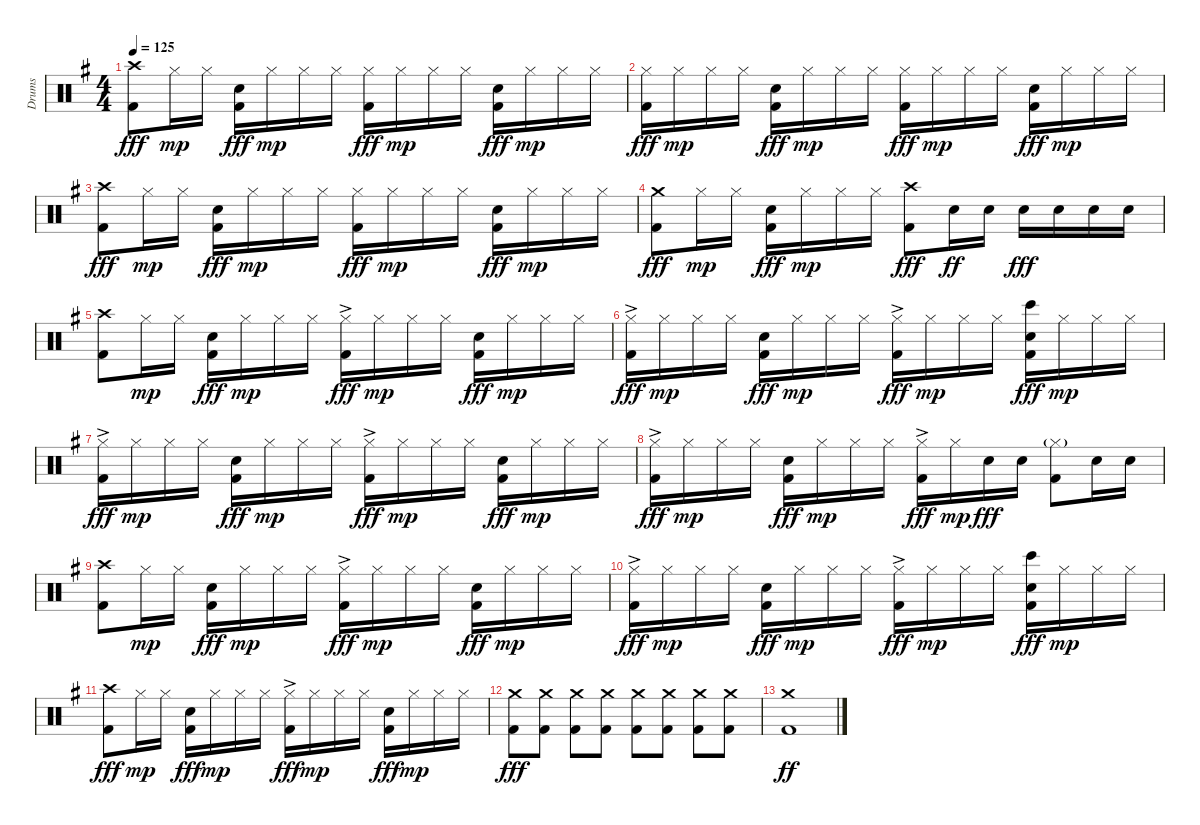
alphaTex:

\track ("Drums" "Drums") {instrument percussion}
\staff {score}
\articulation defaults
\ts (4 4)
\tempo 125
\clef neutral
\ks eminor
("Crash high (hit)" "Kick (hit) 2").8{dy fff} "Hi-Hat (closed)".16{dy mp} "Hi-Hat (closed)".16 ("Electric Snare (hit)" "Kick (hit) 2").16{dy fff} "Hi-Hat (closed)".16{dy mp} "Hi-Hat (closed)".16 "Hi-Hat (closed)".16 ("Hi-Hat (closed)" "Kick (hit) 2").16{dy fff} "Hi-Hat (closed)".16{dy mp} "Hi-Hat (closed)".16 "Hi-Hat (closed)".16 ("Electric Snare (hit)" "Kick (hit) 2").16{dy fff} "Hi-Hat (closed)".16{dy mp} "Hi-Hat (closed)".16 "Hi-Hat (closed)".16 |
("Hi-Hat (closed)" "Kick (hit) 2").16{dy fff} "Hi-Hat (closed)".16{dy mp} "Hi-Hat (closed)".16 "Hi-Hat (closed)".16 ("Electric Snare (hit)" "Kick (hit) 2").16{dy fff} "Hi-Hat (closed)".16{dy mp} "Hi-Hat (closed)".16 "Hi-Hat (closed)".16 ("Hi-Hat (closed)" "Kick (hit) 2").16{dy fff} "Hi-Hat (closed)".16{dy mp} "Hi-Hat (closed)".16 "Hi-Hat (closed)".16 ("Electric Snare (hit)" "Kick (hit) 2").16{dy fff} "Hi-Hat (closed)".16{dy mp} "Hi-Hat (closed)".16 "Hi-Hat (closed)".16 |
("Crash high (hit)" "Kick (hit) 2").8{dy fff} "Hi-Hat (closed)".16{dy mp} "Hi-Hat (closed)".16 ("Electric Snare (hit)" "Kick (hit) 2").16{dy fff} "Hi-Hat (closed)".16{dy mp} "Hi-Hat (closed)".16 "Hi-Hat (closed)".16 ("Hi-Hat (closed)" "Kick (hit) 2").16{dy fff} "Hi-Hat (closed)".16{dy mp} "Hi-Hat (closed)".16 "Hi-Hat (closed)".16 ("Electric Snare (hit)" "Kick (hit) 2").16{dy fff} "Hi-Hat (closed)".16{dy mp} "Hi-Hat (closed)".16 "Hi-Hat (closed)".16 |
("Crash medium (hit)" "Kick (hit) 2").8{dy fff} "Hi-Hat (closed)".16{dy mp} "Hi-Hat (closed)".16 ("Electric Snare (hit)" "Kick (hit) 2").16{dy fff} "Hi-Hat (closed)".16{dy mp} "Hi-Hat (closed)".16 "Hi-Hat (closed)".16 ("Crash high (hit)" "Kick (hit) 2").8{dy fff} "Electric Snare (hit)".16{dy ff} "Electric Snare (hit)".16 "Electric Snare (hit)".16{dy fff} "Electric Snare (hit)".16 "Electric Snare (hit)".16 "Electric Snare (hit)".16 |
("Crash high (hit)" "Kick (hit) 2").8 "Hi-Hat (closed)".16{dy mp} "Hi-Hat (closed)".16 ("Electric Snare (hit)" "Kick (hit) 2").16{dy fff} "Hi-Hat (closed)".16{dy mp} "Hi-Hat (closed)".16 "Hi-Hat (closed)".16 ("Hi-Hat (closed)"{ac} "Kick (hit) 2").16{dy fff} "Hi-Hat (closed)".16{dy mp} "Hi-Hat (closed)".16 "Hi-Hat (closed)".16 ("Electric Snare (hit)" "Kick (hit) 2").16{dy fff} "Hi-Hat (closed)".16{dy mp} "Hi-Hat (closed)".16 "Hi-Hat (closed)".16 |
("Hi-Hat (closed)"{ac} "Kick (hit) 2").16{dy fff} "Hi-Hat (closed)".16{dy mp} "Hi-Hat (closed)".16 "Hi-Hat (closed)".16 ("Electric Snare (hit)" "Kick (hit) 2").16{dy fff} "Hi-Hat (closed)".16{dy mp} "Hi-Hat (closed)".16 "Hi-Hat (closed)".16 ("Hi-Hat (closed)"{ac} "Kick (hit) 2").16{dy fff} "Hi-Hat (closed)".16{dy mp} "Hi-Hat (closed)".16 "Hi-Hat (closed)".16 ("Bongo High (hit)" "Electric Snare (hit)" "Kick (hit) 2").16{dy fff} "Hi-Hat (closed)".16{dy mp} "Hi-Hat (closed)".16 "Hi-Hat (closed)".16 |
("Hi-Hat (closed)"{ac} "Kick (hit) 2").16{dy fff} "Hi-Hat (closed)".16{dy mp} "Hi-Hat (closed)".16 "Hi-Hat (closed)".16 ("Electric Snare (hit)" "Kick (hit) 2").16{dy fff} "Hi-Hat (closed)".16{dy mp} "Hi-Hat (closed)".16 "Hi-Hat (closed)".16 ("Hi-Hat (closed)"{ac} "Kick (hit) 2").16{dy fff} "Hi-Hat (closed)".16{dy mp} "Hi-Hat (closed)".16 "Hi-Hat (closed)".16 ("Electric Snare (hit)" "Kick (hit) 2").16{dy fff} "Hi-Hat (closed)".16{dy mp} "Hi-Hat (closed)".16 "Hi-Hat (closed)".16 |
("Hi-Hat (closed)"{ac} "Kick (hit) 2").16{dy fff} "Hi-Hat (closed)".16{dy mp} "Hi-Hat (closed)".16 "Hi-Hat (closed)".16 ("Electric Snare (hit)" "Kick (hit) 2").16{dy fff} "Hi-Hat (closed)".16{dy mp} "Hi-Hat (closed)".16 "Hi-Hat (closed)".16 ("Hi-Hat (closed)"{ac} "Kick (hit) 2").16{dy fff} "Hi-Hat (closed)".16{dy mp} "Electric Snare (hit)".16{dy fff} "Electric Snare (hit)".16 ("Hi-Hat (closed)"{g} "Kick (hit) 2").8 "Electric Snare (hit)".16 "Electric Snare (hit)".16 |
("Crash high (hit)" "Kick (hit) 2").8 "Hi-Hat (closed)".16{dy mp} "Hi-Hat (closed)".16 ("Electric Snare (hit)" "Kick (hit) 2").16{dy fff} "Hi-Hat (closed)".16{dy mp} "Hi-Hat (closed)".16 "Hi-Hat (closed)".16 ("Hi-Hat (closed)"{ac} "Kick (hit) 2").16{dy fff} "Hi-Hat (closed)".16{dy mp} "Hi-Hat (closed)".16 "Hi-Hat (closed)".16 ("Electric Snare (hit)" "Kick (hit) 2").16{dy fff} "Hi-Hat (closed)".16{dy mp} "Hi-Hat (closed)".16 "Hi-Hat (closed)".16 |
("Hi-Hat (closed)"{ac} "Kick (hit) 2").16{dy fff} "Hi-Hat (closed)".16{dy mp} "Hi-Hat (closed)".16 "Hi-Hat (closed)".16 ("Electric Snare (hit)" "Kick (hit) 2").16{dy fff} "Hi-Hat (closed)".16{dy mp} "Hi-Hat (closed)".16 "Hi-Hat (closed)".16 ("Hi-Hat (closed)"{ac} "Kick (hit) 2").16{dy fff} "Hi-Hat (closed)".16{dy mp} "Hi-Hat (closed)".16 "Hi-Hat (closed)".16 ("Bongo High (hit)" "Electric Snare (hit)" "Kick (hit) 2").16{dy fff} "Hi-Hat (closed)".16{dy mp} "Hi-Hat (closed)".16 "Hi-Hat (closed)".16 |
("Crash high (hit)" "Kick (hit) 2").8{dy fff} "Hi-Hat (closed)".16{dy mp} "Hi-Hat (closed)".16 ("Electric Snare (hit)" "Kick (hit) 2").16{dy fff} "Hi-Hat (closed)".16{dy mp} "Hi-Hat (closed)".16 "Hi-Hat (closed)".16 ("Hi-Hat (closed)"{ac} "Kick (hit) 2").16{dy fff} "Hi-Hat (closed)".16{dy mp} "Hi-Hat (closed)".16 "Hi-Hat (closed)".16 ("Electric Snare (hit)" "Kick (hit) 2").16{dy fff} "Hi-Hat (closed)".16{dy mp} "Hi-Hat (closed)".16 "Hi-Hat (closed)".16 |
("Crash medium (hit)" "Kick (hit) 2").8{dy fff} ("Crash medium (hit)" "Kick (hit) 2").8 ("Crash medium (hit)" "Kick (hit) 2").8 ("Crash medium (hit)" "Kick (hit) 2").8 ("Crash medium (hit)" "Kick (hit) 2").8 ("Crash medium (hit)" "Kick (hit) 2").8 ("Crash medium (hit)" "Kick (hit) 2").8 ("Crash medium (hit)" "Kick (hit) 2").8 |
("Crash medium (hit)" "Kick (hit) 2").1{dy ff}
